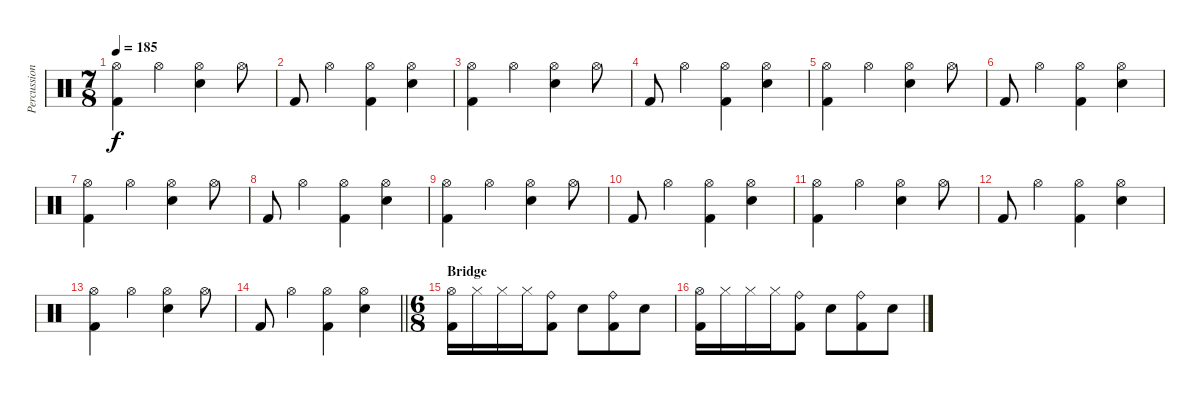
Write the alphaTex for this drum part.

\track ("Percussion" "Percussion") {instrument percussion}
\staff {score}
\articulation defaults
\ts (7 8)
\tempo 185
\clef neutral
\ks c
("Hi-Hat (open)" "Kick (hit) 2").4{dy f} "Hi-Hat (open)".4 ("Hi-Hat (open)" "Snare (hit) 2").4 "Hi-Hat (open)".8 |
"Kick (hit) 2".8 "Hi-Hat (open)".4 ("Hi-Hat (open)" "Kick (hit) 2").4 ("Hi-Hat (open)" "Snare (hit) 2").4 |
("Hi-Hat (open)" "Kick (hit) 2").4 "Hi-Hat (open)".4 ("Hi-Hat (open)" "Snare (hit) 2").4 "Hi-Hat (open)".8 |
"Kick (hit) 2".8 "Hi-Hat (open)".4 ("Hi-Hat (open)" "Kick (hit) 2").4 ("Hi-Hat (open)" "Snare (hit) 2").4 |
("Hi-Hat (open)" "Kick (hit) 2").4 "Hi-Hat (open)".4 ("Hi-Hat (open)" "Snare (hit) 2").4 "Hi-Hat (open)".8 |
"Kick (hit) 2".8 "Hi-Hat (open)".4 ("Hi-Hat (open)" "Kick (hit) 2").4 ("Hi-Hat (open)" "Snare (hit) 2").4 |
("Hi-Hat (open)" "Kick (hit) 2").4 "Hi-Hat (open)".4 ("Hi-Hat (open)" "Snare (hit) 2").4 "Hi-Hat (open)".8 |
"Kick (hit) 2".8 "Hi-Hat (open)".4 ("Hi-Hat (open)" "Kick (hit) 2").4 ("Hi-Hat (open)" "Snare (hit) 2").4 |
("Hi-Hat (open)" "Kick (hit) 2").4 "Hi-Hat (open)".4 ("Hi-Hat (open)" "Snare (hit) 2").4 "Hi-Hat (open)".8 |
"Kick (hit) 2".8 "Hi-Hat (open)".4 ("Hi-Hat (open)" "Kick (hit) 2").4 ("Hi-Hat (open)" "Snare (hit) 2").4 |
("Hi-Hat (open)" "Kick (hit) 2").4 "Hi-Hat (open)".4 ("Hi-Hat (open)" "Snare (hit) 2").4 "Hi-Hat (open)".8 |
"Kick (hit) 2".8 "Hi-Hat (open)".4 ("Hi-Hat (open)" "Kick (hit) 2").4 ("Hi-Hat (open)" "Snare (hit) 2").4 |
("Hi-Hat (open)" "Kick (hit) 2").4 "Hi-Hat (open)".4 ("Hi-Hat (open)" "Snare (hit) 2").4 "Hi-Hat (open)".8 |
\barLineRight lightlight "Kick (hit) 2".8 "Hi-Hat (open)".4
("Hi-Hat (open)" "Kick (hit) 2").4 ("Hi-Hat (open)" "Snare (hit) 2").4 |
\ts (6 8)
\section ("" "Bridge")
("Hi-Hat (open)" "Kick (hit) 2").16 "Hi-Hat (closed)".16 "Hi-Hat (closed)".16 "Hi-Hat (closed)".16 ("Ride (bell)" "Kick (hit) 2").8 "Snare (hit) 2".8 ("Ride (bell)" "Kick (hit) 2").8 "Snare (hit) 2".8 |
("Hi-Hat (open)" "Kick (hit) 2").16 "Hi-Hat (closed)".16 "Hi-Hat (closed)".16 "Hi-Hat (closed)".16 ("Ride (bell)" "Kick (hit) 2").8 "Snare (hit) 2".8 ("Ride (bell)" "Kick (hit) 2").8 "Snare (hit) 2".8
